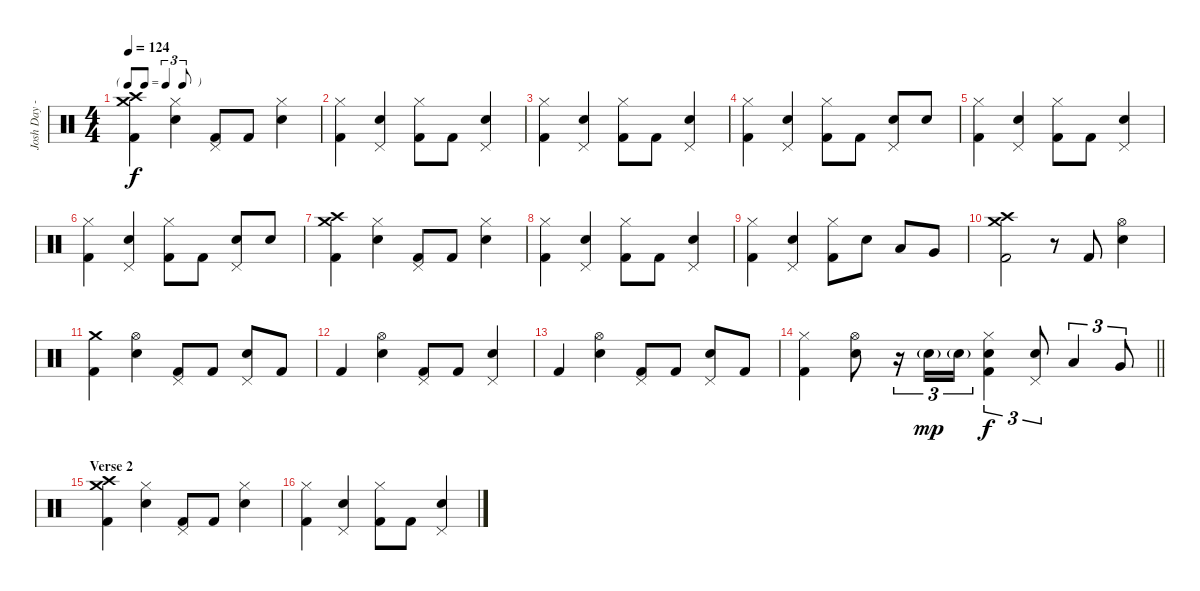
\track ("Josh Day - Drums/Percussion" "Josh Day -") {instrument percussion}
\staff {score}
\articulation defaults
\ts (4 4)
\tf triplet8th
\tempo 124
\clef neutral
\ks c
("Crash medium (hit)" "Crash high (hit)" "Kick (hit) 2").4{dy f} ("Snare (hit) 2" "Hi-Hat (closed)").4 ("Pedal Hi-Hat (hit)" "Kick (hit) 2").8 "Kick (hit) 2".8 ("Snare (hit) 2" "Hi-Hat (closed)").4 |
("Hi-Hat (closed)" "Kick (hit) 2").4 ("Snare (hit) 2" "Pedal Hi-Hat (hit)").4 ("Hi-Hat (closed)" "Kick (hit) 2").8 "Kick (hit) 2".8 ("Snare (hit) 2" "Pedal Hi-Hat (hit)").4 |
("Hi-Hat (closed)" "Kick (hit) 2").4 ("Snare (hit) 2" "Pedal Hi-Hat (hit)").4 ("Hi-Hat (closed)" "Kick (hit) 2").8 "Kick (hit) 2".8 ("Snare (hit) 2" "Pedal Hi-Hat (hit)").4 |
("Hi-Hat (closed)" "Kick (hit) 2").4 ("Snare (hit) 2" "Pedal Hi-Hat (hit)").4 ("Hi-Hat (closed)" "Kick (hit) 2").8 "Kick (hit) 2".8 ("Snare (hit) 2" "Pedal Hi-Hat (hit)").8 "Snare (hit) 2".8 |
("Hi-Hat (closed)" "Kick (hit) 2").4 ("Snare (hit) 2" "Pedal Hi-Hat (hit)").4 ("Hi-Hat (closed)" "Kick (hit) 2").8 "Kick (hit) 2".8 ("Snare (hit) 2" "Pedal Hi-Hat (hit)").4 |
("Hi-Hat (closed)" "Kick (hit) 2").4 ("Snare (hit) 2" "Pedal Hi-Hat (hit)").4 ("Hi-Hat (closed)" "Kick (hit) 2").8 "Kick (hit) 2".8 ("Snare (hit) 2" "Pedal Hi-Hat (hit)").8 "Snare (hit) 2".8 |
("Crash medium (hit)" "Crash high (hit)" "Kick (hit) 2").4 ("Snare (hit) 2" "Hi-Hat (closed)").4 ("Pedal Hi-Hat (hit)" "Kick (hit) 2").8 "Kick (hit) 2".8 ("Snare (hit) 2" "Hi-Hat (closed)").4 |
("Hi-Hat (closed)" "Kick (hit) 2").4 ("Snare (hit) 2" "Pedal Hi-Hat (hit)").4 ("Hi-Hat (closed)" "Kick (hit) 2").8 "Kick (hit) 2".8 ("Snare (hit) 2" "Pedal Hi-Hat (hit)").4 |
("Hi-Hat (closed)" "Kick (hit) 2").4 ("Snare (hit) 2" "Pedal Hi-Hat (hit)").4 ("Hi-Hat (closed)" "Kick (hit) 2").8 "Snare (hit) 2".8 "Low Tom (hit)".8 "Very Low Tom (hit)".8 |
("Crash medium (hit)" "Crash high (hit)" "Kick (hit) 2").2 r.8 "Kick (hit) 2".8 ("Snare (hit) 2" "Hi-Hat (open)").4 |
("Crash medium (hit)" "Kick (hit) 2").4 ("Snare (hit) 2" "Hi-Hat (open)").4 ("Pedal Hi-Hat (hit)" "Kick (hit) 2").8 "Kick (hit) 2".8 ("Snare (hit) 2" "Pedal Hi-Hat (hit)").8 "Kick (hit) 2".8 |
"Kick (hit) 2".4 ("Snare (hit) 2" "Hi-Hat (open)").4 ("Pedal Hi-Hat (hit)" "Kick (hit) 2").8 "Kick (hit) 2".8 ("Snare (hit) 2" "Pedal Hi-Hat (hit)").4 |
"Kick (hit) 2".4 ("Snare (hit) 2" "Hi-Hat (open)").4 ("Pedal Hi-Hat (hit)" "Kick (hit) 2").8 "Kick (hit) 2".8 ("Snare (hit) 2" "Pedal Hi-Hat (hit)").8 "Kick (hit) 2".8 |
\barLineRight lightlight
("Hi-Hat (closed)" "Kick (hit) 2").4 ("Snare (hit) 2" "Hi-Hat (open)").8 r.16{tu (3 2)} "Snare (hit) 2"{g}.16{tu (3 2) dy mp} "Snare (hit) 2"{g}.16{tu (3 2)} ("Snare (hit) 2" "Hi-Hat (closed)" "Kick (hit) 2").4{tu (3 2) dy f} ("Snare (hit) 2" "Pedal Hi-Hat (hit)").8{tu (3 2)} "Low Tom (hit)".4{tu (3 2)} "Very Low Tom (hit)".8{tu (3 2)} |
\section ("" "Verse 2")
("Crash medium (hit)" "Crash high (hit)" "Kick (hit) 2").4 ("Snare (hit) 2" "Hi-Hat (closed)").4 ("Pedal Hi-Hat (hit)" "Kick (hit) 2").8 "Kick (hit) 2".8 ("Snare (hit) 2" "Hi-Hat (closed)").4 |
("Hi-Hat (closed)" "Kick (hit) 2").4 ("Snare (hit) 2" "Pedal Hi-Hat (hit)").4 ("Hi-Hat (closed)" "Kick (hit) 2").8 "Kick (hit) 2".8 ("Snare (hit) 2" "Pedal Hi-Hat (hit)").4
